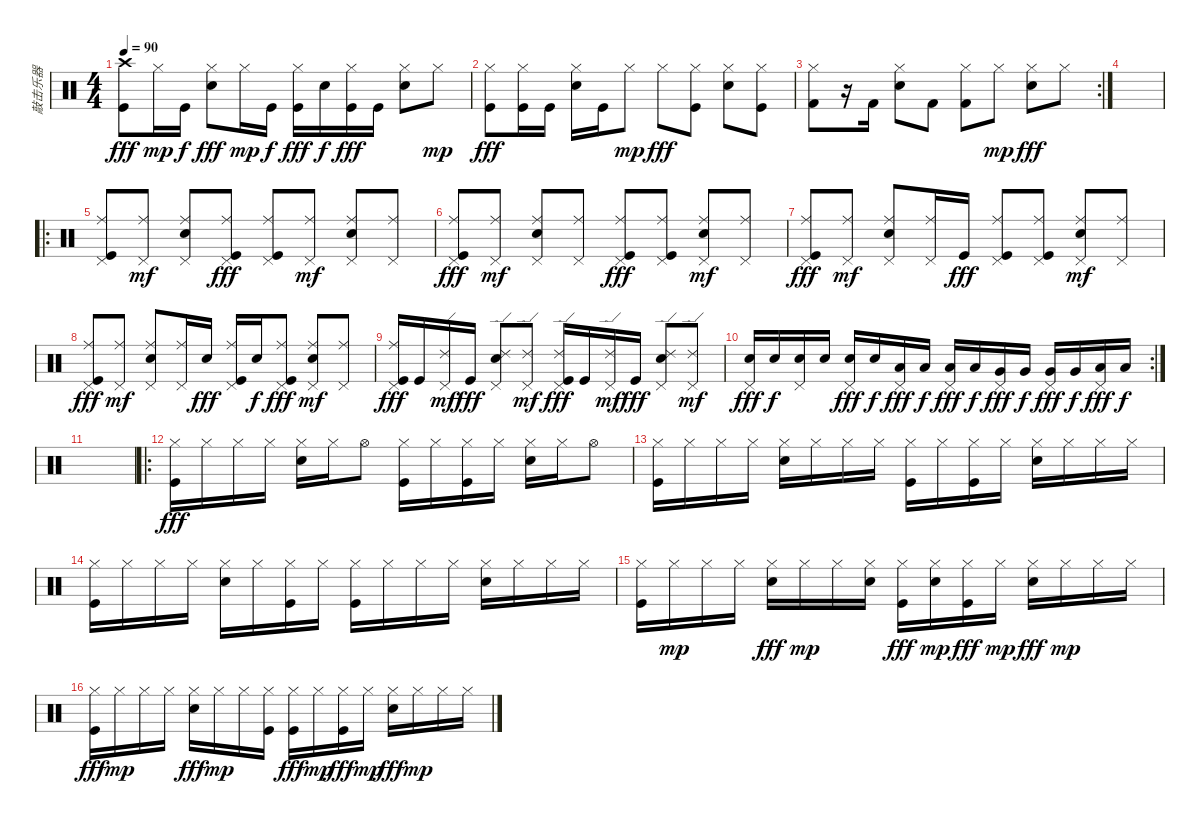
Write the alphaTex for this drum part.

\track ("敲击乐器" "敲击乐器") {instrument percussion}
\staff {score}
\articulation defaults
\ts (4 4)
\tempo 90
\clef neutral
\ks c
("Crash high (hit)" "Kick (hit)").8{dy fff} "Hi-Hat (closed)".16{dy mp} "Kick (hit)".16{dy f} ("Hi-Hat (closed)" "Electric Snare (hit)").8{dy fff} "Hi-Hat (closed)".16{dy mp} "Kick (hit)".16{dy f} ("Hi-Hat (closed)" "Kick (hit)").16{dy fff} "Electric Snare (hit)".16{dy f} ("Hi-Hat (closed)" "Kick (hit)").16{dy fff} "Kick (hit)".16 ("Hi-Hat (closed)" "Electric Snare (hit)").8 "Hi-Hat (closed)".8{dy mp} |
("Hi-Hat (closed)" "Kick (hit)").8{dy fff} ("Hi-Hat (closed)" "Kick (hit)").16 "Kick (hit)".16 ("Hi-Hat (closed)" "Electric Snare (hit)").16 "Kick (hit)".16 "Hi-Hat (closed)".8{dy mp} "Hi-Hat (closed)".8{dy fff} ("Hi-Hat (closed)" "Kick (hit)").8 ("Hi-Hat (closed)" "Electric Snare (hit)").8 ("Hi-Hat (closed)" "Kick (hit)").8 |
\rc 2
("Hi-Hat (closed)" "Kick (hit) 2").8 r.16 "Kick (hit) 2".16 ("Hi-Hat (closed)" "Electric Snare (hit)").8 "Kick (hit) 2".8 ("Hi-Hat (closed)" "Kick (hit) 2").8 "Hi-Hat (closed)".8{dy mp} ("Hi-Hat (closed)" "Electric Snare (hit)").8{dy fff} "Hi-Hat (closed)".8 |
|
\ro
("Ride (middle)" "Pedal Hi-Hat (hit)" "Kick (hit)").8 ("Ride (middle)" "Pedal Hi-Hat (hit)").8{dy mf} ("Ride (middle)" "Electric Snare (hit)" "Pedal Hi-Hat (hit)").8 ("Ride (middle)" "Pedal Hi-Hat (hit)" "Kick (hit)").8{dy fff} ("Ride (middle)" "Pedal Hi-Hat (hit)" "Kick (hit)").8 ("Ride (middle)" "Pedal Hi-Hat (hit)").8{dy mf} ("Ride (middle)" "Electric Snare (hit)" "Pedal Hi-Hat (hit)").8 ("Ride (middle)" "Pedal Hi-Hat (hit)").8 |
("Ride (middle)" "Pedal Hi-Hat (hit)" "Kick (hit)").8{dy fff} ("Ride (middle)" "Pedal Hi-Hat (hit)").8{dy mf} ("Ride (middle)" "Electric Snare (hit)" "Pedal Hi-Hat (hit)").8 ("Ride (middle)" "Pedal Hi-Hat (hit)").8 ("Ride (middle)" "Pedal Hi-Hat (hit)" "Kick (hit)").8{dy fff} ("Ride (middle)" "Pedal Hi-Hat (hit)" "Kick (hit)").8 ("Ride (middle)" "Electric Snare (hit)" "Pedal Hi-Hat (hit)").8{dy mf} ("Ride (middle)" "Pedal Hi-Hat (hit)").8 |
("Ride (middle)" "Pedal Hi-Hat (hit)" "Kick (hit)").8{dy fff} ("Ride (middle)" "Pedal Hi-Hat (hit)").8{dy mf} ("Ride (middle)" "Electric Snare (hit)" "Pedal Hi-Hat (hit)").8 ("Ride (middle)" "Pedal Hi-Hat (hit)").16 "Kick (hit)".16{dy fff} ("Ride (middle)" "Pedal Hi-Hat (hit)" "Kick (hit)").8 ("Ride (middle)" "Pedal Hi-Hat (hit)" "Kick (hit)").8 ("Ride (middle)" "Electric Snare (hit)" "Pedal Hi-Hat (hit)").8{dy mf} ("Ride (middle)" "Pedal Hi-Hat (hit)").8 |
("Ride (middle)" "Pedal Hi-Hat (hit)" "Kick (hit)").8{dy fff} ("Ride (middle)" "Pedal Hi-Hat (hit)").8{dy mf} ("Ride (middle)" "Electric Snare (hit)" "Pedal Hi-Hat (hit)").8 ("Ride (middle)" "Pedal Hi-Hat (hit)").16 "Electric Snare (hit)".16{dy fff} ("Ride (middle)" "Pedal Hi-Hat (hit)" "Kick (hit)").16 "Electric Snare (hit)".16{dy f} ("Ride (middle)" "Pedal Hi-Hat (hit)" "Kick (hit)").8{dy fff} ("Ride (middle)" "Electric Snare (hit)" "Pedal Hi-Hat (hit)").8{dy mf} ("Ride (middle)" "Pedal Hi-Hat (hit)").8 |
("Ride (middle)" "Pedal Hi-Hat (hit)" "Kick (hit)").16{dy fff} "Kick (hit)".16 ("Ride (edge) 2" "Pedal Hi-Hat (hit)").16{dy mf} "Kick (hit)".16{dy fff} ("Ride (edge) 2" "Snare (hit) 2" "Pedal Hi-Hat (hit)").8 ("Ride (edge) 2" "Pedal Hi-Hat (hit)").8{dy mf} ("Ride (edge) 2" "Pedal Hi-Hat (hit)" "Kick (hit)").16{dy fff} "Kick (hit)".16 ("Ride (edge) 2" "Pedal Hi-Hat (hit)").16{dy mf} "Kick (hit)".16{dy fff} ("Ride (edge) 2" "Snare (hit) 2" "Pedal Hi-Hat (hit)").8 ("Ride (edge) 2" "Pedal Hi-Hat (hit)").8{dy mf} |
\rc 2
("Electric Snare (hit)" "Pedal Hi-Hat (hit)").16{dy fff} "Electric Snare (hit)".16{dy f} ("Electric Snare (hit)" "Pedal Hi-Hat (hit)").16 "Electric Snare (hit)".16 ("Electric Snare (hit)" "Pedal Hi-Hat (hit)").16{dy fff} "Electric Snare (hit)".16{dy f} ("Low Tom (hit)" "Pedal Hi-Hat (hit)").16{dy fff} "Low Tom (hit)".16{dy f} ("Low Tom (hit)" "Pedal Hi-Hat (hit)").16{dy fff} "Low Tom (hit)".16{dy f} ("Very Low Tom (hit)" "Pedal Hi-Hat (hit)").16{dy fff} "Very Low Tom (hit)".16{dy f} ("Very Low Tom (hit)" "Pedal Hi-Hat (hit)").16{dy fff} "Very Low Tom (hit)".16{dy f} ("Low Floor Tom (hit)" "Pedal Hi-Hat (hit)").16{dy fff} "Low Floor Tom (hit)".16{dy f} |
|
\ro
("Kick (hit)" "Hi-Hat (closed)").16{dy fff} "Hi-Hat (closed)".16 "Hi-Hat (closed)".16 "Hi-Hat (closed)".16 ("Electric Snare (hit)" "Hi-Hat (closed)").16 "Hi-Hat (closed)".16 "Hi-Hat (open)".8 ("Kick (hit)" "Hi-Hat (closed)").16 "Hi-Hat (closed)".16 ("Kick (hit)" "Hi-Hat (closed)").16 "Hi-Hat (closed)".16 ("Electric Snare (hit)" "Hi-Hat (closed)").16 "Hi-Hat (closed)".16 "Hi-Hat (open)".8 |
("Kick (hit)" "Hi-Hat (closed)").16 "Hi-Hat (closed)".16 "Hi-Hat (closed)".16 "Hi-Hat (closed)".16 ("Electric Snare (hit)" "Hi-Hat (closed)").16 "Hi-Hat (closed)".16 "Hi-Hat (closed)".16 "Hi-Hat (closed)".16 ("Kick (hit)" "Hi-Hat (closed)").16 "Hi-Hat (closed)".16 ("Kick (hit)" "Hi-Hat (closed)").16 "Hi-Hat (closed)".16 ("Electric Snare (hit)" "Hi-Hat (closed)").16 "Hi-Hat (closed)".16 "Hi-Hat (closed)".16 "Hi-Hat (closed)".16 |
("Kick (hit)" "Hi-Hat (closed)").16 "Hi-Hat (closed)".16 "Hi-Hat (closed)".16 "Hi-Hat (closed)".16 ("Electric Snare (hit)" "Hi-Hat (closed)").16 "Hi-Hat (closed)".16 ("Hi-Hat (closed)" "Kick (hit)").16 "Hi-Hat (closed)".16 ("Kick (hit)" "Hi-Hat (closed)").16 "Hi-Hat (closed)".16 "Hi-Hat (closed)".16 "Hi-Hat (closed)".16 ("Electric Snare (hit)" "Hi-Hat (closed)").16 "Hi-Hat (closed)".16 "Hi-Hat (closed)".16 "Hi-Hat (closed)".16 |
("Hi-Hat (closed)" "Kick (hit)").16 "Hi-Hat (closed)".16{dy mp} "Hi-Hat (closed)".16 "Hi-Hat (closed)".16 ("Hi-Hat (closed)" "Electric Snare (hit)").16{dy fff} "Hi-Hat (closed)".16{dy mp} "Hi-Hat (closed)".16 ("Hi-Hat (closed)" "Electric Snare (hit)").16 ("Hi-Hat (closed)" "Kick (hit)").16{dy fff} ("Hi-Hat (closed)" "Electric Snare (hit)").16{dy mp} ("Hi-Hat (closed)" "Kick (hit)").16{dy fff} "Hi-Hat (closed)".16{dy mp} ("Hi-Hat (closed)" "Electric Snare (hit)").16{dy fff} "Hi-Hat (closed)".16{dy mp} "Hi-Hat (closed)".16 "Hi-Hat (closed)".16 |
("Hi-Hat (closed)" "Kick (hit)").16{dy fff} "Hi-Hat (closed)".16{dy mp} "Hi-Hat (closed)".16 "Hi-Hat (closed)".16 ("Hi-Hat (closed)" "Electric Snare (hit)").16{dy fff} "Hi-Hat (closed)".16{dy mp} "Hi-Hat (closed)".16 ("Hi-Hat (closed)" "Kick (hit)").16 ("Hi-Hat (closed)" "Kick (hit)").16{dy fff} "Hi-Hat (closed)".16{dy mp} ("Hi-Hat (closed)" "Kick (hit)").16{dy fff} "Hi-Hat (closed)".16{dy mp} ("Hi-Hat (closed)" "Electric Snare (hit)").16{dy fff} "Hi-Hat (closed)".16{dy mp} "Hi-Hat (closed)".16 "Hi-Hat (closed)".16
